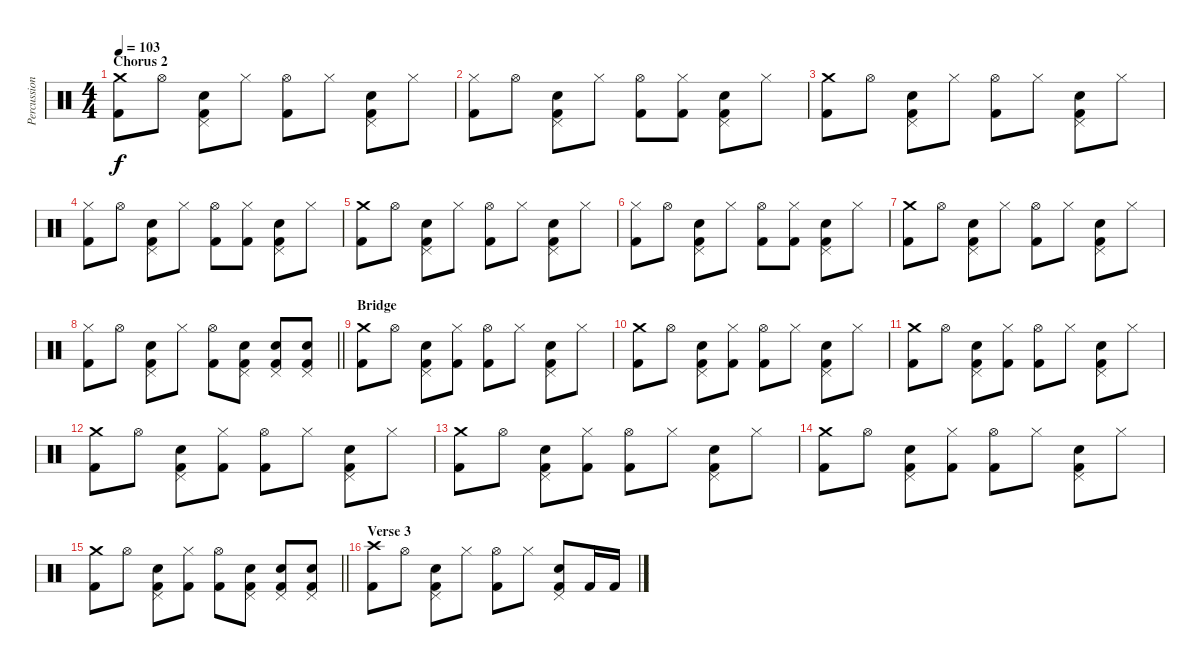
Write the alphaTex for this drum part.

\track ("Percussion: Denny Carmassi" "Percussion") {instrument percussion}
\staff {score}
\articulation defaults
\ts (4 4)
\section ("" "Chorus 2")
\tempo 103
\clef neutral
\ks c
("Crash medium (hit)" "Kick (hit) 2").8{dy f} "Hi-Hat (open)".8 ("Pedal Hi-Hat (hit)" "Snare (hit) 2" "Kick (hit) 2").8 "Hi-Hat (closed)".8 ("Hi-Hat (open)" "Kick (hit) 2").8 "Hi-Hat (closed)".8 ("Pedal Hi-Hat (hit)" "Snare (hit) 2" "Kick (hit) 2").8 "Hi-Hat (closed)".8 |
("Hi-Hat (closed)" "Kick (hit) 2").8 "Hi-Hat (open)".8 ("Pedal Hi-Hat (hit)" "Snare (hit) 2" "Kick (hit) 2").8 "Hi-Hat (closed)".8 ("Hi-Hat (open)" "Kick (hit) 2").8 ("Hi-Hat (closed)" "Kick (hit) 2").8 ("Pedal Hi-Hat (hit)" "Snare (hit) 2" "Kick (hit) 2").8 "Hi-Hat (closed)".8 |
("Crash medium (hit)" "Kick (hit) 2").8 "Hi-Hat (open)".8 ("Pedal Hi-Hat (hit)" "Snare (hit) 2" "Kick (hit) 2").8 "Hi-Hat (closed)".8 ("Hi-Hat (open)" "Kick (hit) 2").8 "Hi-Hat (closed)".8 ("Pedal Hi-Hat (hit)" "Snare (hit) 2" "Kick (hit) 2").8 "Hi-Hat (closed)".8 |
("Hi-Hat (closed)" "Kick (hit) 2").8 "Hi-Hat (open)".8 ("Pedal Hi-Hat (hit)" "Snare (hit) 2" "Kick (hit) 2").8 "Hi-Hat (closed)".8 ("Hi-Hat (open)" "Kick (hit) 2").8 ("Hi-Hat (closed)" "Kick (hit) 2").8 ("Pedal Hi-Hat (hit)" "Snare (hit) 2" "Kick (hit) 2").8 "Hi-Hat (closed)".8 |
("Crash medium (hit)" "Kick (hit) 2").8 "Hi-Hat (open)".8 ("Pedal Hi-Hat (hit)" "Snare (hit) 2" "Kick (hit) 2").8 "Hi-Hat (closed)".8 ("Hi-Hat (open)" "Kick (hit) 2").8 "Hi-Hat (closed)".8 ("Pedal Hi-Hat (hit)" "Snare (hit) 2" "Kick (hit) 2").8 "Hi-Hat (closed)".8 |
("Hi-Hat (closed)" "Kick (hit) 2").8 "Hi-Hat (open)".8 ("Pedal Hi-Hat (hit)" "Snare (hit) 2" "Kick (hit) 2").8 "Hi-Hat (closed)".8 ("Hi-Hat (open)" "Kick (hit) 2").8 ("Hi-Hat (closed)" "Kick (hit) 2").8 ("Pedal Hi-Hat (hit)" "Snare (hit) 2" "Kick (hit) 2").8 "Hi-Hat (closed)".8 |
("Crash medium (hit)" "Kick (hit) 2").8 "Hi-Hat (open)".8 ("Pedal Hi-Hat (hit)" "Snare (hit) 2" "Kick (hit) 2").8 "Hi-Hat (closed)".8 ("Hi-Hat (open)" "Kick (hit) 2").8 "Hi-Hat (closed)".8 ("Pedal Hi-Hat (hit)" "Snare (hit) 2" "Kick (hit) 2").8 "Hi-Hat (closed)".8 |
\barLineRight lightlight
("Hi-Hat (closed)" "Kick (hit) 2").8 "Hi-Hat (open)".8 ("Pedal Hi-Hat (hit)" "Snare (hit) 2" "Kick (hit) 2").8 "Hi-Hat (closed)".8 ("Hi-Hat (open)" "Kick (hit) 2").8 ("Pedal Hi-Hat (hit)" "Snare (hit) 2" "Kick (hit) 2").8 ("Pedal Hi-Hat (hit)" "Snare (hit) 2" "Kick (hit) 2").8 ("Pedal Hi-Hat (hit)" "Snare (hit) 2" "Kick (hit) 2").8 |
\section ("" "Bridge")
("Crash medium (hit)" "Kick (hit) 2").8 "Hi-Hat (open)".8 ("Pedal Hi-Hat (hit)" "Snare (hit) 2" "Kick (hit) 2").8 ("Hi-Hat (closed)" "Kick (hit) 2").8 ("Hi-Hat (open)" "Kick (hit) 2").8 "Hi-Hat (closed)".8 ("Pedal Hi-Hat (hit)" "Snare (hit) 2" "Kick (hit) 2").8 "Hi-Hat (closed)".8 |
("Crash medium (hit)" "Kick (hit) 2").8 "Hi-Hat (open)".8 ("Pedal Hi-Hat (hit)" "Snare (hit) 2" "Kick (hit) 2").8 ("Hi-Hat (closed)" "Kick (hit) 2").8 ("Hi-Hat (open)" "Kick (hit) 2").8 "Hi-Hat (closed)".8 ("Pedal Hi-Hat (hit)" "Snare (hit) 2" "Kick (hit) 2").8 "Hi-Hat (closed)".8 |
("Crash medium (hit)" "Kick (hit) 2").8 "Hi-Hat (open)".8 ("Pedal Hi-Hat (hit)" "Snare (hit) 2" "Kick (hit) 2").8 ("Hi-Hat (closed)" "Kick (hit) 2").8 ("Hi-Hat (open)" "Kick (hit) 2").8 "Hi-Hat (closed)".8 ("Pedal Hi-Hat (hit)" "Snare (hit) 2" "Kick (hit) 2").8 "Hi-Hat (closed)".8 |
("Crash medium (hit)" "Kick (hit) 2").8 "Hi-Hat (open)".8 ("Pedal Hi-Hat (hit)" "Snare (hit) 2" "Kick (hit) 2").8 ("Hi-Hat (closed)" "Kick (hit) 2").8 ("Hi-Hat (open)" "Kick (hit) 2").8 "Hi-Hat (closed)".8 ("Pedal Hi-Hat (hit)" "Snare (hit) 2" "Kick (hit) 2").8 "Hi-Hat (closed)".8 |
("Crash medium (hit)" "Kick (hit) 2").8 "Hi-Hat (open)".8 ("Pedal Hi-Hat (hit)" "Snare (hit) 2" "Kick (hit) 2").8 ("Hi-Hat (closed)" "Kick (hit) 2").8 ("Hi-Hat (open)" "Kick (hit) 2").8 "Hi-Hat (closed)".8 ("Pedal Hi-Hat (hit)" "Snare (hit) 2" "Kick (hit) 2").8 "Hi-Hat (closed)".8 |
("Crash medium (hit)" "Kick (hit) 2").8 "Hi-Hat (open)".8 ("Pedal Hi-Hat (hit)" "Snare (hit) 2" "Kick (hit) 2").8 ("Hi-Hat (closed)" "Kick (hit) 2").8 ("Hi-Hat (open)" "Kick (hit) 2").8 "Hi-Hat (closed)".8 ("Pedal Hi-Hat (hit)" "Snare (hit) 2" "Kick (hit) 2").8 "Hi-Hat (closed)".8 |
\barLineRight lightlight
("Crash medium (hit)" "Kick (hit) 2").8 "Hi-Hat (open)".8 ("Pedal Hi-Hat (hit)" "Snare (hit) 2" "Kick (hit) 2").8 ("Hi-Hat (closed)" "Kick (hit) 2").8 ("Hi-Hat (open)" "Kick (hit) 2").8 ("Pedal Hi-Hat (hit)" "Snare (hit) 2" "Kick (hit) 2").8 ("Pedal Hi-Hat (hit)" "Snare (hit) 2" "Kick (hit) 2").8 ("Pedal Hi-Hat (hit)" "Snare (hit) 2" "Kick (hit) 2").8 |
\section ("" "Verse 3")
("Crash high (hit)" "Kick (hit) 2").8 "Hi-Hat (open)".8 ("Pedal Hi-Hat (hit)" "Snare (hit) 2" "Kick (hit) 2").8 "Hi-Hat (closed)".8 ("Hi-Hat (open)" "Kick (hit) 2").8 "Hi-Hat (closed)".8 ("Pedal Hi-Hat (hit)" "Snare (hit) 2" "Kick (hit) 2").8 "Kick (hit) 2".16 "Kick (hit) 2".16
